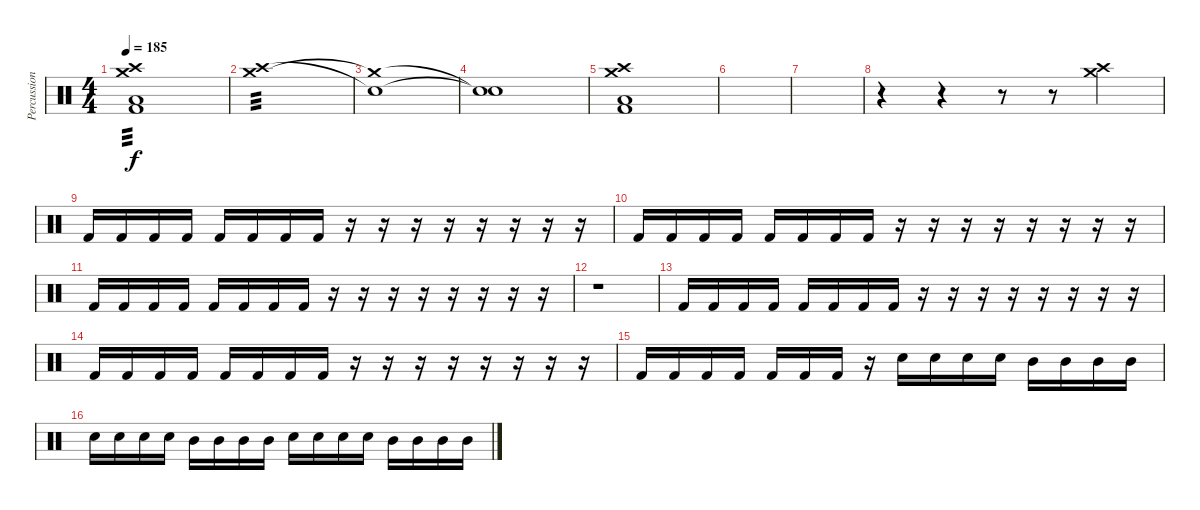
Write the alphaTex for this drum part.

\track ("Percussion" "Percussion") {instrument percussion}
\staff {score}
\articulation defaults
\ts (4 4)
\tempo 185
\clef neutral
\ks c
("Crash high (hit)" "Crash medium (hit)" "Kick (hit) 2" "Low Floor Tom (hit)").1{tp 3 dy f} |
("Crash high (hit)" "Crash medium (hit)").1{tp 3} |
("Snare (hit)"{t} "Crash medium (hit)"{t}).1 |
("Snare (hit)"{t} "Snare (hit)"{t}).1 |
("Crash high (hit)" "Crash medium (hit)" "Kick (hit) 2" "Low Floor Tom (hit)").1 |
|
|
r.4 r.4 r.8 r.8 ("Crash high (hit)" "Crash medium (hit)").4 |
"Kick (hit) 2".16 "Kick (hit) 2".16 "Kick (hit) 2".16 "Kick (hit) 2".16 "Kick (hit) 2".16 "Kick (hit) 2".16 "Kick (hit) 2".16 "Kick (hit) 2".16 r.16 r.16 r.16 r.16 r.16 r.16 r.16 r.16 |
"Kick (hit) 2".16 "Kick (hit) 2".16 "Kick (hit) 2".16 "Kick (hit) 2".16 "Kick (hit) 2".16 "Kick (hit) 2".16 "Kick (hit) 2".16 "Kick (hit) 2".16 r.16 r.16 r.16 r.16 r.16 r.16 r.16 r.16 |
"Kick (hit) 2".16 "Kick (hit) 2".16 "Kick (hit) 2".16 "Kick (hit) 2".16 "Kick (hit) 2".16 "Kick (hit) 2".16 "Kick (hit) 2".16 "Kick (hit) 2".16 r.16 r.16 r.16 r.16 r.16 r.16 r.16 r.16 |
r.1 |
"Kick (hit) 2".16 "Kick (hit) 2".16 "Kick (hit) 2".16 "Kick (hit) 2".16 "Kick (hit) 2".16 "Kick (hit) 2".16 "Kick (hit) 2".16 "Kick (hit) 2".16 r.16 r.16 r.16 r.16 r.16 r.16 r.16 r.16 |
"Kick (hit) 2".16 "Kick (hit) 2".16 "Kick (hit) 2".16 "Kick (hit) 2".16 "Kick (hit) 2".16 "Kick (hit) 2".16 "Kick (hit) 2".16 "Kick (hit) 2".16 r.16 r.16 r.16 r.16 r.16 r.16 r.16 r.16 |
"Kick (hit) 2".16 "Kick (hit) 2".16 "Kick (hit) 2".16 "Kick (hit) 2".16 "Kick (hit) 2".16 "Kick (hit) 2".16 "Kick (hit) 2".16 r.16 "Snare (hit) 2".16 "Snare (hit) 2".16 "Snare (hit) 2".16 "Snare (hit) 2".16 "Mid Tom (hit)".16 "Mid Tom (hit)".16 "Mid Tom (hit)".16 "Mid Tom (hit)".16 |
"Snare (hit) 2".16 "Snare (hit) 2".16 "Snare (hit) 2".16 "Snare (hit) 2".16 "Mid Tom (hit)".16 "Mid Tom (hit)".16 "Mid Tom (hit)".16 "Mid Tom (hit)".16 "Snare (hit) 2".16 "Snare (hit) 2".16 "Snare (hit) 2".16 "Snare (hit) 2".16 "Mid Tom (hit)".16 "Mid Tom (hit)".16 "Mid Tom (hit)".16 "Mid Tom (hit)".16
